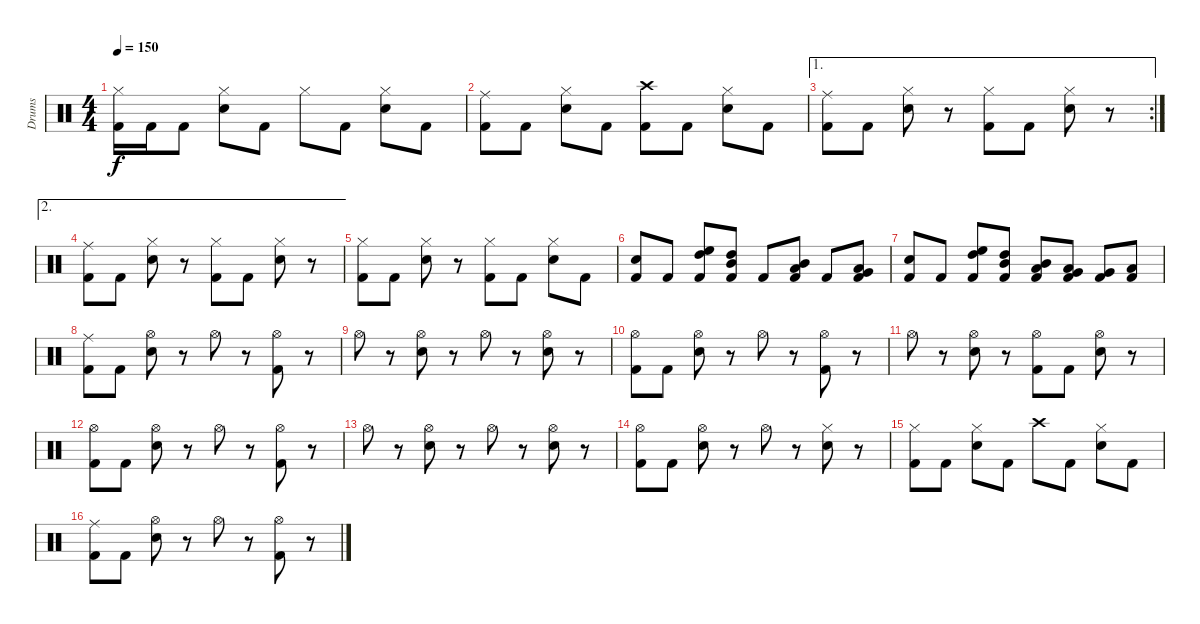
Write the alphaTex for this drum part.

\track ("Drums" "Drums") {instrument percussion}
\staff {score}
\articulation defaults
\ts (4 4)
\tempo 150
\clef neutral
\ks c
("Hi-Hat (closed)" "Kick (hit) 2").16{dy f} "Kick (hit) 2".16 "Kick (hit) 2".8 ("Hi-Hat (closed)" "Electric Snare (hit)").8 "Kick (hit) 2".8 "Hi-Hat (closed)".8 "Kick (hit) 2".8 ("Hi-Hat (closed)" "Electric Snare (hit)").8 "Kick (hit) 2".8 |
("Ride (middle)" "Kick (hit) 2").8 "Kick (hit) 2".8 ("Hi-Hat (closed)" "Electric Snare (hit)").8 "Kick (hit) 2".8 ("Crash high (hit)" "Kick (hit) 2").8 "Kick (hit) 2".8 ("Hi-Hat (closed)" "Electric Snare (hit)").8 "Kick (hit) 2".8 |
\ae 1
\rc 2
("Ride (middle)" "Kick (hit) 2").8 "Kick (hit) 2".8 ("Hi-Hat (closed)" "Electric Snare (hit)").8 r.8 ("Hi-Hat (closed)" "Kick (hit) 2").8 "Kick (hit) 2".8 ("Hi-Hat (closed)" "Electric Snare (hit)").8 r.8 |
\ae 2
("Ride (middle)" "Kick (hit) 2").8 "Kick (hit) 2".8 ("Hi-Hat (closed)" "Electric Snare (hit)").8 r.8 ("Hi-Hat (closed)" "Kick (hit) 2").8 "Kick (hit) 2".8 ("Hi-Hat (closed)" "Electric Snare (hit)").8 r.8 |
("Hi-Hat (closed)" "Kick (hit) 2").8 "Kick (hit) 2".8 ("Hi-Hat (closed)" "Electric Snare (hit)").8 r.8 ("Hi-Hat (closed)" "Kick (hit) 2").8 "Kick (hit) 2".8 ("Hi-Hat (closed)" "Electric Snare (hit)").8 "Kick (hit) 2".8 |
("Electric Snare (hit)" "Kick (hit) 2").8 "Kick (hit) 2".8 ("High Floor Tom (hit)" "High Tom (hit)" "Kick (hit) 2").8 ("Mid Tom (hit)" "High Tom (hit)" "Kick (hit) 2").8 "Kick (hit) 2".8 ("Mid Tom (hit)" "Low Tom (hit)" "Kick (hit) 2").8 "Kick (hit) 2".8 ("Very Low Tom (hit)" "Low Tom (hit)" "Kick (hit) 2").8 |
("Electric Snare (hit)" "Kick (hit) 2").8 "Kick (hit) 2".8 ("High Floor Tom (hit)" "High Tom (hit)" "Kick (hit) 2").8 ("Mid Tom (hit)" "High Tom (hit)" "Kick (hit) 2").8 ("Mid Tom (hit)" "Low Tom (hit)" "Kick (hit) 2").8 ("Very Low Tom (hit)" "Low Tom (hit)" "Kick (hit) 2").8 ("Very Low Tom (hit)" "Kick (hit) 2").8 ("Low Floor Tom (hit)" "Kick (hit) 2").8 |
("Ride (middle)" "Kick (hit) 2").8 "Kick (hit) 2".8 ("Hi-Hat (open)" "Electric Snare (hit)").8 r.8 "Hi-Hat (open)".8 r.8 ("Hi-Hat (open)" "Kick (hit) 2").8 r.8 |
"Hi-Hat (open)".8 r.8 ("Hi-Hat (open)" "Electric Snare (hit)").8 r.8 "Hi-Hat (open)".8 r.8 ("Hi-Hat (open)" "Electric Snare (hit)").8 r.8 |
("Hi-Hat (open)" "Kick (hit) 2").8 "Kick (hit) 2".8 ("Hi-Hat (open)" "Electric Snare (hit)").8 r.8 "Hi-Hat (open)".8 r.8 ("Hi-Hat (open)" "Kick (hit) 2").8 r.8 |
"Hi-Hat (open)".8 r.8 ("Hi-Hat (open)" "Electric Snare (hit)").8 r.8 ("Hi-Hat (open)" "Kick (hit) 2").8 "Kick (hit) 2".8 ("Hi-Hat (open)" "Electric Snare (hit)").8 r.8 |
("Hi-Hat (open)" "Kick (hit) 2").8 "Kick (hit) 2".8 ("Hi-Hat (open)" "Electric Snare (hit)").8 r.8 "Hi-Hat (open)".8 r.8 ("Hi-Hat (open)" "Kick (hit) 2").8 r.8 |
"Hi-Hat (open)".8 r.8 ("Hi-Hat (open)" "Electric Snare (hit)").8 r.8 "Hi-Hat (open)".8 r.8 ("Hi-Hat (open)" "Electric Snare (hit)").8 r.8 |
("Hi-Hat (open)" "Kick (hit) 2").8 "Kick (hit) 2".8 ("Hi-Hat (open)" "Electric Snare (hit)").8 r.8 "Hi-Hat (open)".8 r.8 ("Hi-Hat (closed)" "Electric Snare (hit)").8 r.8 |
("Hi-Hat (closed)" "Kick (hit) 2").8 "Kick (hit) 2".8 ("Hi-Hat (closed)" "Electric Snare (hit)").8 "Kick (hit) 2".8 "Crash high (hit)".8 "Kick (hit) 2".8 ("Hi-Hat (closed)" "Electric Snare (hit)").8 "Kick (hit) 2".8 |
("Ride (middle)" "Kick (hit) 2").8 "Kick (hit) 2".8 ("Hi-Hat (open)" "Electric Snare (hit)").8 r.8 "Hi-Hat (open)".8 r.8 ("Hi-Hat (open)" "Kick (hit) 2").8 r.8
